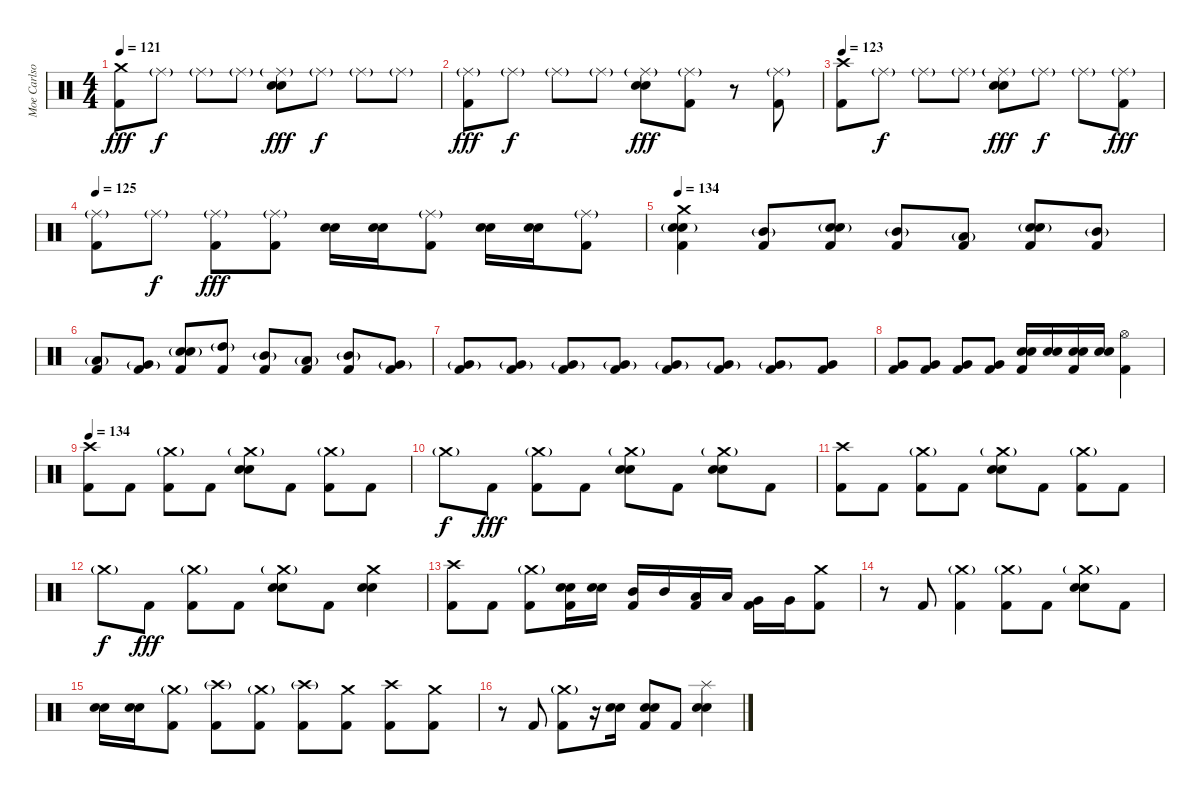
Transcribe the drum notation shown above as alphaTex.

\track ("Moe Carlson" "Moe Carlso") {instrument percussion}
\staff {score}
\articulation defaults
\ts (4 4)
\tempo 121
\clef neutral
\ks c
("Crash medium (hit)" "Kick (hit) 2").8{dy fff} "Ride (middle)"{g}.8{dy f} "Ride (middle)"{g}.8 "Ride (middle)"{g}.8 ("Ride (middle)"{g} "Snare (hit) 2" "Electric Snare (hit)").8{dy fff} "Ride (middle)"{g}.8{dy f} "Ride (middle)"{g}.8 "Ride (middle)"{g}.8 |
("Ride (middle)"{g} "Kick (hit) 2").8{dy fff} "Ride (middle)"{g}.8{dy f} "Ride (middle)"{g}.8 "Ride (middle)"{g}.8 ("Ride (middle)"{g} "Snare (hit) 2" "Electric Snare (hit)").8{dy fff} ("Ride (middle)"{g} "Kick (hit) 2").8 r.8 ("Ride (middle)"{g} "Kick (hit) 2").8 |
\tempo 123
("Crash high (hit)" "Kick (hit) 2").8 "Ride (middle)"{g}.8{dy f} "Ride (middle)"{g}.8 "Ride (middle)"{g}.8 ("Ride (middle)"{g} "Snare (hit) 2" "Electric Snare (hit)").8{dy fff} "Ride (middle)"{g}.8{dy f} "Ride (middle)"{g}.8 ("Ride (middle)"{g} "Kick (hit) 2").8{dy fff} |
\tempo 125
("Ride (middle)"{g} "Kick (hit) 2").8 "Ride (middle)"{g}.8{dy f} ("Ride (middle)"{g} "Kick (hit) 2").8{dy fff} ("Ride (middle)"{g} "Kick (hit) 2").8 ("Snare (hit) 2" "Electric Snare (hit)").16 ("Snare (hit) 2" "Electric Snare (hit)").16 ("Ride (middle)"{g} "Kick (hit) 2").8 ("Snare (hit) 2" "Electric Snare (hit)").16 ("Snare (hit) 2" "Electric Snare (hit)").16 ("Ride (middle)"{g} "Kick (hit) 2").8 |
\tempo 134
("Crash medium (hit)" "Snare (hit) 2"{g} "Electric Snare (hit)"{g} "Kick (hit) 2").4 ("Mid Tom (hit)"{g} "Kick (hit) 2").8 ("Snare (hit) 2"{g} "Electric Snare (hit)"{g} "Kick (hit) 2").8 ("Mid Tom (hit)"{g} "Kick (hit) 2").8 ("Low Tom (hit)"{g} "Kick (hit) 2").8 ("Snare (hit) 2"{g} "Electric Snare (hit)"{g} "Kick (hit) 2").8 ("Mid Tom (hit)"{g} "Kick (hit) 2").8 |
("Low Tom (hit)"{g} "Kick (hit) 2").8 ("Very Low Tom (hit)"{g} "Kick (hit) 2").8 ("Snare (hit) 2"{g} "Electric Snare (hit)"{g} "Kick (hit) 2").8 ("High Tom (hit)"{g} "Kick (hit) 2").8 ("Mid Tom (hit)"{g} "Kick (hit) 2").8 ("Low Tom (hit)"{g} "Kick (hit) 2").8 ("Mid Tom (hit)"{g} "Kick (hit) 2").8 ("Very Low Tom (hit)"{g} "Kick (hit) 2").8 |
("Very Low Tom (hit)"{g} "Kick (hit) 2").8 ("Very Low Tom (hit)"{g} "Kick (hit) 2").8 ("Very Low Tom (hit)"{g} "Kick (hit) 2").8 ("Very Low Tom (hit)"{g} "Kick (hit) 2").8 ("Very Low Tom (hit)"{g} "Kick (hit) 2").8 ("Very Low Tom (hit)"{g} "Kick (hit) 2").8 ("Very Low Tom (hit)"{g} "Kick (hit) 2").8 ("Very Low Tom (hit)" "Kick (hit) 2").8 |
("Very Low Tom (hit)" "Kick (hit) 2").8 ("Very Low Tom (hit)" "Kick (hit) 2").8 ("Very Low Tom (hit)" "Kick (hit) 2").8 ("Very Low Tom (hit)" "Kick (hit) 2").8 ("Snare (hit) 2" "Electric Snare (hit)" "Kick (hit) 2").16 ("Snare (hit) 2" "Electric Snare (hit)").16 ("Snare (hit) 2" "Electric Snare (hit)" "Kick (hit) 2").16 ("Snare (hit) 2" "Electric Snare (hit)").16 ("Hi-Hat (open)" "Kick (hit) 2").4 |
\tempo 134
("Crash high (hit)" "Kick (hit) 2").8 "Kick (hit) 2".8 ("Crash medium (hit)"{g} "Kick (hit) 2").8 "Kick (hit) 2".8 ("Crash medium (hit)"{g} "Snare (hit) 2" "Electric Snare (hit)").8 "Kick (hit) 2".8 ("Crash medium (hit)"{g} "Kick (hit) 2").8 "Kick (hit) 2".8 |
"Crash medium (hit)"{g}.8{dy f} "Kick (hit) 2".8{dy fff} ("Crash medium (hit)"{g} "Kick (hit) 2").8 "Kick (hit) 2".8 ("Crash medium (hit)"{g} "Snare (hit) 2" "Electric Snare (hit)").8 "Kick (hit) 2".8 ("Crash medium (hit)"{g} "Snare (hit) 2" "Electric Snare (hit)").8 "Kick (hit) 2".8 |
("Crash high (hit)" "Kick (hit) 2").8 "Kick (hit) 2".8 ("Crash medium (hit)"{g} "Kick (hit) 2").8 "Kick (hit) 2".8 ("Crash medium (hit)"{g} "Snare (hit) 2" "Electric Snare (hit)").8 "Kick (hit) 2".8 ("Crash medium (hit)"{g} "Kick (hit) 2").8 "Kick (hit) 2".8 |
"Crash medium (hit)"{g}.8{dy f} "Kick (hit) 2".8{dy fff} ("Crash medium (hit)"{g} "Kick (hit) 2").8 "Kick (hit) 2".8 ("Crash medium (hit)"{g} "Snare (hit) 2" "Electric Snare (hit)").8 "Kick (hit) 2".8 ("Crash medium (hit)" "Snare (hit) 2" "Electric Snare (hit)").4 |
("Crash high (hit)" "Kick (hit) 2").8 "Kick (hit) 2".8 ("Crash medium (hit)"{g} "Kick (hit) 2").8 ("Snare (hit) 2" "Electric Snare (hit)" "Kick (hit) 2").16 ("Snare (hit) 2" "Electric Snare (hit)").16 ("Mid Tom (hit)" "Kick (hit) 2").16 "Mid Tom (hit)".16 ("Low Tom (hit)" "Kick (hit) 2").16 "Low Tom (hit)".16 ("Very Low Tom (hit)" "Kick (hit) 2").16 "Very Low Tom (hit)".16 ("Crash medium (hit)" "Kick (hit) 2").8 |
r.8 "Kick (hit) 2".8 ("Crash medium (hit)"{g} "Kick (hit) 2").4 ("Crash medium (hit)"{g} "Kick (hit) 2").8 "Kick (hit) 2".8 ("Crash medium (hit)"{g} "Snare (hit) 2" "Electric Snare (hit)").8 "Kick (hit) 2".8 |
("Snare (hit) 2" "Electric Snare (hit)").16 ("Snare (hit) 2" "Electric Snare (hit)").16 ("Crash medium (hit)"{g} "Kick (hit) 2").8 ("Crash high (hit)"{g} "Kick (hit) 2").8 ("Crash medium (hit)"{g} "Kick (hit) 2").8 ("Crash high (hit)"{g} "Kick (hit) 2").8 ("Crash medium (hit)" "Kick (hit) 2").8 ("Crash high (hit)" "Kick (hit) 2").8 ("Crash medium (hit)" "Kick (hit) 2").8 |
r.8 "Kick (hit) 2".8 ("Crash medium (hit)"{g} "Kick (hit) 2").8 r.16 ("Snare (hit) 2" "Electric Snare (hit)").16 ("Snare (hit) 2" "Electric Snare (hit)" "Kick (hit) 2").8 "Kick (hit) 2".8 ("Splash (hit)" "Snare (hit) 2" "Electric Snare (hit)").4
